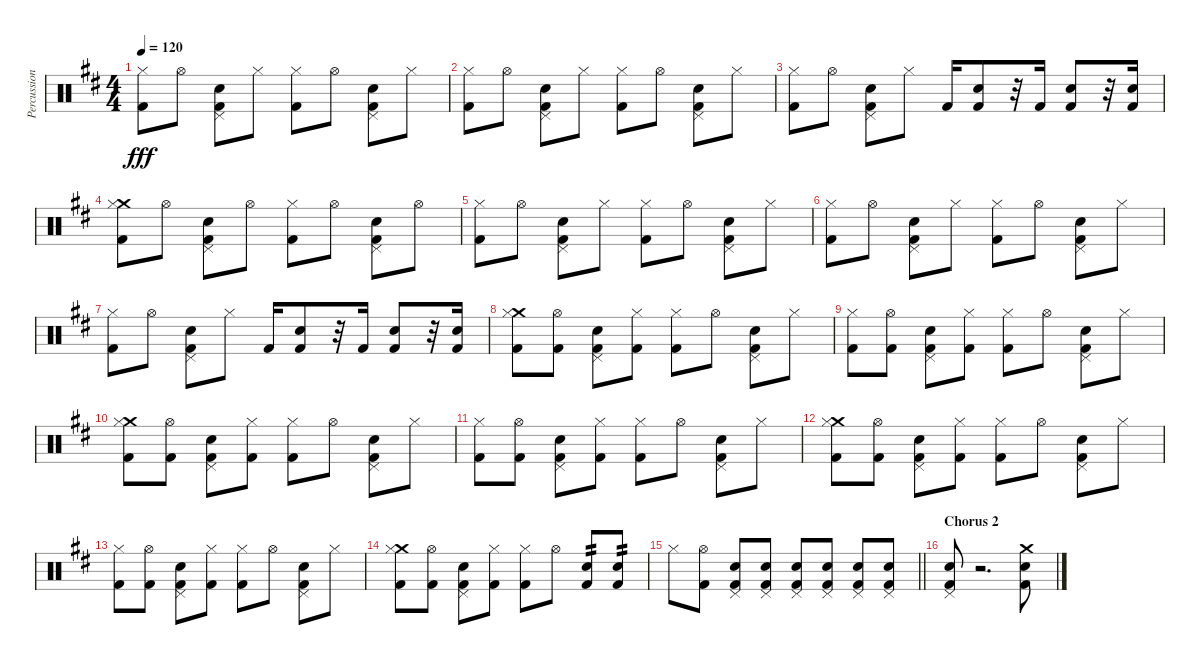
\track ("Percussion: Boz Burrell" "Percussion") {instrument percussion}
\staff {score}
\articulation defaults
\ts (4 4)
\tempo 120
\clef neutral
\ks d
("Hi-Hat (closed)" "Kick (hit) 2").8{dy fff} "Hi-Hat (open)".8 ("Pedal Hi-Hat (hit)" "Snare (hit) 2" "Kick (hit) 2").8 "Hi-Hat (closed)".8 ("Hi-Hat (closed)" "Kick (hit) 2").8 "Hi-Hat (open)".8 ("Pedal Hi-Hat (hit)" "Snare (hit) 2" "Kick (hit) 2").8 "Hi-Hat (closed)".8 |
("Hi-Hat (closed)" "Kick (hit) 2").8 "Hi-Hat (open)".8 ("Pedal Hi-Hat (hit)" "Snare (hit) 2" "Kick (hit) 2").8 "Hi-Hat (closed)".8 ("Hi-Hat (closed)" "Kick (hit) 2").8 "Hi-Hat (open)".8 ("Pedal Hi-Hat (hit)" "Snare (hit) 2" "Kick (hit) 2").8 "Hi-Hat (closed)".8 |
("Hi-Hat (closed)" "Kick (hit) 2").8 "Hi-Hat (open)".8 ("Pedal Hi-Hat (hit)" "Snare (hit) 2" "Kick (hit) 2").8 "Hi-Hat (closed)".8 "Kick (hit) 2".16 ("Snare (hit) 2" "Kick (hit) 2").8 r.32 "Kick (hit) 2".16 ("Snare (hit) 2" "Kick (hit) 2").8 r.32 ("Electric Snare (hit)" "Kick (hit) 2").16 |
("Crash medium (hit)" "Hi-Hat (closed)" "Kick (hit) 2").8 "Hi-Hat (open)".8 ("Pedal Hi-Hat (hit)" "Snare (hit) 2" "Kick (hit) 2").8 "Hi-Hat (open)".8 ("Hi-Hat (closed)" "Kick (hit) 2").8 "Hi-Hat (open)".8 ("Pedal Hi-Hat (hit)" "Snare (hit) 2" "Kick (hit) 2").8 "Hi-Hat (open)".8 |
("Hi-Hat (closed)" "Kick (hit) 2").8 "Hi-Hat (open)".8 ("Pedal Hi-Hat (hit)" "Snare (hit) 2" "Kick (hit) 2").8 "Hi-Hat (closed)".8 ("Hi-Hat (closed)" "Kick (hit) 2").8 "Hi-Hat (open)".8 ("Pedal Hi-Hat (hit)" "Snare (hit) 2" "Kick (hit) 2").8 "Hi-Hat (closed)".8 |
("Hi-Hat (closed)" "Kick (hit) 2").8 "Hi-Hat (open)".8 ("Pedal Hi-Hat (hit)" "Snare (hit) 2" "Kick (hit) 2").8 "Hi-Hat (closed)".8 ("Hi-Hat (closed)" "Kick (hit) 2").8 "Hi-Hat (open)".8 ("Pedal Hi-Hat (hit)" "Snare (hit) 2" "Kick (hit) 2").8 "Hi-Hat (closed)".8 |
("Hi-Hat (closed)" "Kick (hit) 2").8 "Hi-Hat (open)".8 ("Pedal Hi-Hat (hit)" "Snare (hit) 2" "Kick (hit) 2").8 "Hi-Hat (closed)".8 "Kick (hit) 2".16 ("Snare (hit) 2" "Kick (hit) 2").8 r.32 "Kick (hit) 2".16 ("Snare (hit) 2" "Kick (hit) 2").8 r.32 ("Electric Snare (hit)" "Kick (hit) 2").16 |
("Crash medium (hit)" "Hi-Hat (closed)" "Kick (hit) 2").8 ("Hi-Hat (open)" "Kick (hit) 2").8 ("Pedal Hi-Hat (hit)" "Snare (hit) 2" "Kick (hit) 2").8 ("Hi-Hat (closed)" "Kick (hit) 2").8 ("Hi-Hat (closed)" "Kick (hit) 2").8 "Hi-Hat (open)".8 ("Pedal Hi-Hat (hit)" "Snare (hit) 2" "Kick (hit) 2").8 "Hi-Hat (closed)".8 |
("Hi-Hat (closed)" "Kick (hit) 2").8 ("Hi-Hat (open)" "Kick (hit) 2").8 ("Pedal Hi-Hat (hit)" "Snare (hit) 2" "Kick (hit) 2").8 ("Hi-Hat (closed)" "Kick (hit) 2").8 ("Hi-Hat (closed)" "Kick (hit) 2").8 "Hi-Hat (open)".8 ("Pedal Hi-Hat (hit)" "Snare (hit) 2" "Kick (hit) 2").8 "Hi-Hat (closed)".8 |
("Crash medium (hit)" "Hi-Hat (closed)" "Kick (hit) 2").8 ("Hi-Hat (open)" "Kick (hit) 2").8 ("Pedal Hi-Hat (hit)" "Snare (hit) 2" "Kick (hit) 2").8 ("Hi-Hat (closed)" "Kick (hit) 2").8 ("Hi-Hat (closed)" "Kick (hit) 2").8 "Hi-Hat (open)".8 ("Pedal Hi-Hat (hit)" "Snare (hit) 2" "Kick (hit) 2").8 "Hi-Hat (closed)".8 |
("Hi-Hat (closed)" "Kick (hit) 2").8 ("Hi-Hat (open)" "Kick (hit) 2").8 ("Pedal Hi-Hat (hit)" "Snare (hit) 2" "Kick (hit) 2").8 ("Hi-Hat (closed)" "Kick (hit) 2").8 ("Hi-Hat (closed)" "Kick (hit) 2").8 "Hi-Hat (open)".8 ("Pedal Hi-Hat (hit)" "Snare (hit) 2" "Kick (hit) 2").8 "Hi-Hat (closed)".8 |
("Crash medium (hit)" "Hi-Hat (closed)" "Kick (hit) 2").8 ("Hi-Hat (open)" "Kick (hit) 2").8 ("Pedal Hi-Hat (hit)" "Snare (hit) 2" "Kick (hit) 2").8 ("Hi-Hat (closed)" "Kick (hit) 2").8 ("Hi-Hat (closed)" "Kick (hit) 2").8 "Hi-Hat (open)".8 ("Pedal Hi-Hat (hit)" "Snare (hit) 2" "Kick (hit) 2").8 "Hi-Hat (closed)".8 |
("Hi-Hat (closed)" "Kick (hit) 2").8 ("Hi-Hat (open)" "Kick (hit) 2").8 ("Pedal Hi-Hat (hit)" "Snare (hit) 2" "Kick (hit) 2").8 ("Hi-Hat (closed)" "Kick (hit) 2").8 ("Hi-Hat (closed)" "Kick (hit) 2").8 "Hi-Hat (open)".8 ("Pedal Hi-Hat (hit)" "Snare (hit) 2" "Kick (hit) 2").8 "Hi-Hat (closed)".8 |
("Crash medium (hit)" "Hi-Hat (closed)" "Kick (hit) 2").8 ("Hi-Hat (open)" "Kick (hit) 2").8 ("Pedal Hi-Hat (hit)" "Snare (hit) 2" "Kick (hit) 2").8 ("Hi-Hat (closed)" "Kick (hit) 2").8 ("Hi-Hat (closed)" "Kick (hit) 2").8 "Hi-Hat (open)".8 ("Snare (hit) 2" "Kick (hit) 2").8{tp 2} ("Snare (hit) 2" "Kick (hit) 2").8{tp 2} |
\barLineRight lightlight "Hi-Hat (closed)".8
("Hi-Hat (open)" "Kick (hit) 2").8 ("Pedal Hi-Hat (hit)" "Snare (hit) 2" "Kick (hit) 2").8 ("Pedal Hi-Hat (hit)" "Snare (hit) 2" "Kick (hit) 2").8 ("Pedal Hi-Hat (hit)" "Snare (hit) 2" "Kick (hit) 2").8 ("Pedal Hi-Hat (hit)" "Snare (hit) 2" "Kick (hit) 2").8 ("Pedal Hi-Hat (hit)" "Snare (hit) 2" "Kick (hit) 2").8 ("Pedal Hi-Hat (hit)" "Snare (hit) 2" "Kick (hit) 2").8 |
\section ("" "Chorus 2")
("Pedal Hi-Hat (hit)" "Snare (hit) 2" "Kick (hit) 2").8 r.2{d} ("Crash medium (hit)" "Snare (hit) 2" "Kick (hit) 2").8
